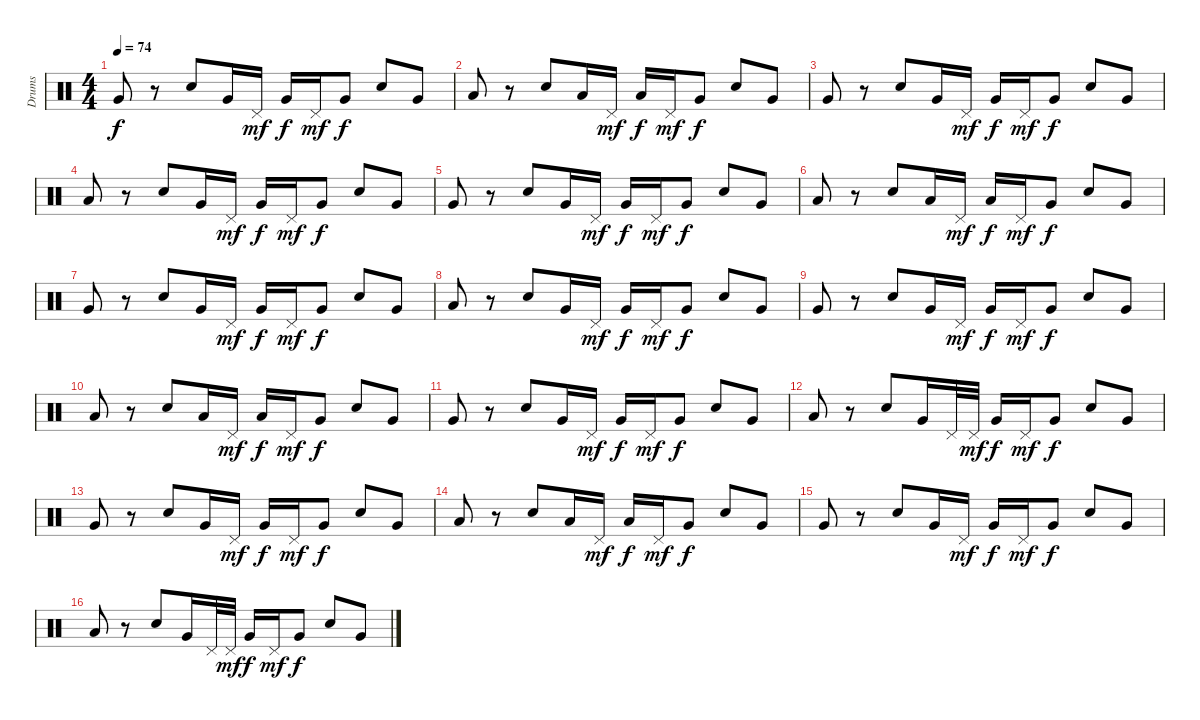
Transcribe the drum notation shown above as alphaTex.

\track ("Drums" "Drums") {instrument percussion}
\staff {score}
\articulation defaults
\ts (4 4)
\tempo 74
\clef neutral
\ks c "Very Low Tom (hit)".8{dy f}
r.8 "Electric Snare (hit)".8 "Very Low Tom (hit)".16 "Pedal Hi-Hat (hit)".16{dy mf} "Very Low Tom (hit)".16{dy f} "Pedal Hi-Hat (hit)".16{dy mf} "Very Low Tom (hit)".8{dy f} "Electric Snare (hit)".8 "Very Low Tom (hit)".8 |
"Low Floor Tom (hit)".8 r.8 "Electric Snare (hit)".8 "Low Floor Tom (hit)".16 "Pedal Hi-Hat (hit)".16{dy mf} "Low Floor Tom (hit)".16{dy f} "Pedal Hi-Hat (hit)".16{dy mf} "Very Low Tom (hit)".8{dy f} "Electric Snare (hit)".8 "Very Low Tom (hit)".8 |
"Very Low Tom (hit)".8 r.8 "Electric Snare (hit)".8 "Very Low Tom (hit)".16 "Pedal Hi-Hat (hit)".16{dy mf} "Very Low Tom (hit)".16{dy f} "Pedal Hi-Hat (hit)".16{dy mf} "Very Low Tom (hit)".8{dy f} "Electric Snare (hit)".8 "Very Low Tom (hit)".8 |
"Low Floor Tom (hit)".8 r.8 "Electric Snare (hit)".8 "Very Low Tom (hit)".16 "Pedal Hi-Hat (hit)".16{dy mf} "Very Low Tom (hit)".16{dy f} "Pedal Hi-Hat (hit)".16{dy mf} "Very Low Tom (hit)".8{dy f} "Electric Snare (hit)".8 "Very Low Tom (hit)".8 |
"Very Low Tom (hit)".8 r.8 "Electric Snare (hit)".8 "Very Low Tom (hit)".16 "Pedal Hi-Hat (hit)".16{dy mf} "Very Low Tom (hit)".16{dy f} "Pedal Hi-Hat (hit)".16{dy mf} "Very Low Tom (hit)".8{dy f} "Electric Snare (hit)".8 "Very Low Tom (hit)".8 |
"Low Floor Tom (hit)".8 r.8 "Electric Snare (hit)".8 "Low Floor Tom (hit)".16 "Pedal Hi-Hat (hit)".16{dy mf} "Low Floor Tom (hit)".16{dy f} "Pedal Hi-Hat (hit)".16{dy mf} "Very Low Tom (hit)".8{dy f} "Electric Snare (hit)".8 "Very Low Tom (hit)".8 |
"Very Low Tom (hit)".8 r.8 "Electric Snare (hit)".8 "Very Low Tom (hit)".16 "Pedal Hi-Hat (hit)".16{dy mf} "Very Low Tom (hit)".16{dy f} "Pedal Hi-Hat (hit)".16{dy mf} "Very Low Tom (hit)".8{dy f} "Electric Snare (hit)".8 "Very Low Tom (hit)".8 |
"Low Floor Tom (hit)".8 r.8 "Electric Snare (hit)".8 "Very Low Tom (hit)".16 "Pedal Hi-Hat (hit)".16{dy mf} "Very Low Tom (hit)".16{dy f} "Pedal Hi-Hat (hit)".16{dy mf} "Very Low Tom (hit)".8{dy f} "Electric Snare (hit)".8 "Very Low Tom (hit)".8 |
"Very Low Tom (hit)".8 r.8 "Electric Snare (hit)".8 "Very Low Tom (hit)".16 "Pedal Hi-Hat (hit)".16{dy mf} "Very Low Tom (hit)".16{dy f} "Pedal Hi-Hat (hit)".16{dy mf} "Very Low Tom (hit)".8{dy f} "Electric Snare (hit)".8 "Very Low Tom (hit)".8 |
"Low Floor Tom (hit)".8 r.8 "Electric Snare (hit)".8 "Low Floor Tom (hit)".16 "Pedal Hi-Hat (hit)".16{dy mf} "Low Floor Tom (hit)".16{dy f} "Pedal Hi-Hat (hit)".16{dy mf} "Very Low Tom (hit)".8{dy f} "Electric Snare (hit)".8 "Very Low Tom (hit)".8 |
"Very Low Tom (hit)".8 r.8 "Electric Snare (hit)".8 "Very Low Tom (hit)".16 "Pedal Hi-Hat (hit)".16{dy mf} "Very Low Tom (hit)".16{dy f} "Pedal Hi-Hat (hit)".16{dy mf} "Very Low Tom (hit)".8{dy f} "Electric Snare (hit)".8 "Very Low Tom (hit)".8 |
"Low Floor Tom (hit)".8 r.8 "Electric Snare (hit)".8 "Very Low Tom (hit)".16 "Pedal Hi-Hat (hit)".32 "Pedal Hi-Hat (hit)".32{dy mf} "Very Low Tom (hit)".16{dy f} "Pedal Hi-Hat (hit)".16{dy mf} "Very Low Tom (hit)".8{dy f} "Electric Snare (hit)".8 "Very Low Tom (hit)".8 |
"Very Low Tom (hit)".8 r.8 "Electric Snare (hit)".8 "Very Low Tom (hit)".16 "Pedal Hi-Hat (hit)".16{dy mf} "Very Low Tom (hit)".16{dy f} "Pedal Hi-Hat (hit)".16{dy mf} "Very Low Tom (hit)".8{dy f} "Electric Snare (hit)".8 "Very Low Tom (hit)".8 |
"Low Floor Tom (hit)".8 r.8 "Electric Snare (hit)".8 "Low Floor Tom (hit)".16 "Pedal Hi-Hat (hit)".16{dy mf} "Low Floor Tom (hit)".16{dy f} "Pedal Hi-Hat (hit)".16{dy mf} "Very Low Tom (hit)".8{dy f} "Electric Snare (hit)".8 "Very Low Tom (hit)".8 |
"Very Low Tom (hit)".8 r.8 "Electric Snare (hit)".8 "Very Low Tom (hit)".16 "Pedal Hi-Hat (hit)".16{dy mf} "Very Low Tom (hit)".16{dy f} "Pedal Hi-Hat (hit)".16{dy mf} "Very Low Tom (hit)".8{dy f} "Electric Snare (hit)".8 "Very Low Tom (hit)".8 |
"Low Floor Tom (hit)".8 r.8 "Electric Snare (hit)".8 "Very Low Tom (hit)".16 "Pedal Hi-Hat (hit)".32 "Pedal Hi-Hat (hit)".32{dy mf} "Very Low Tom (hit)".16{dy f} "Pedal Hi-Hat (hit)".16{dy mf} "Very Low Tom (hit)".8{dy f} "Electric Snare (hit)".8 "Very Low Tom (hit)".8
